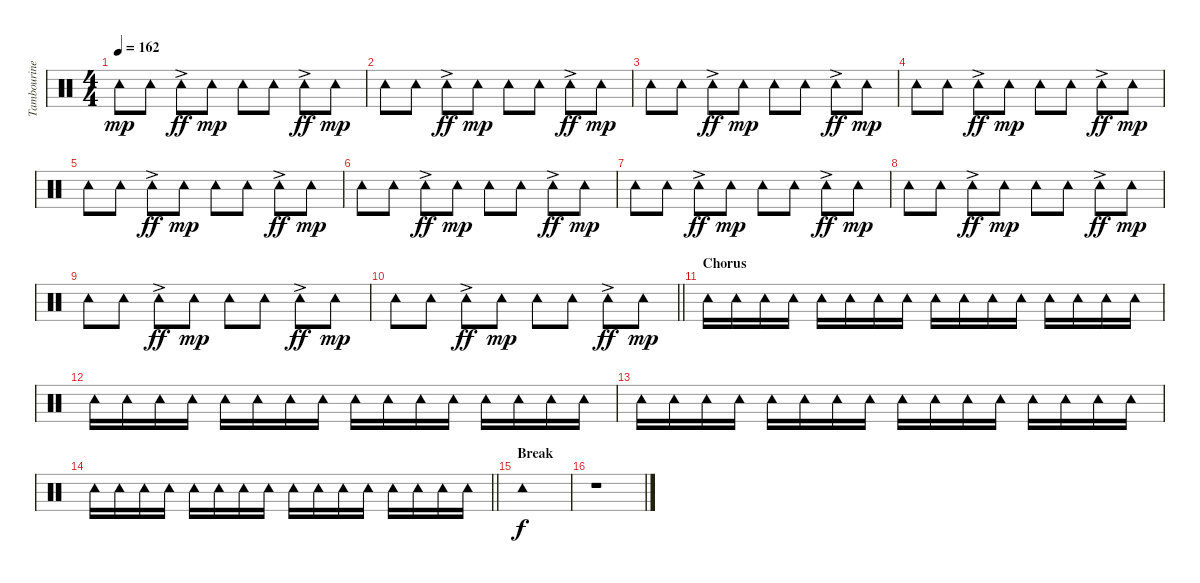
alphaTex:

\track ("Tambourine" "Tambourine") {instrument percussion}
\staff {score}
\articulation defaults
\ts (4 4)
\tempo 162
\clef neutral
\ks c "Tambourine (hit)".8{dy mp} "Tambourine (hit)".8 "Tambourine (hit)"{ac}.8{dy ff} "Tambourine (hit)".8{dy mp} "Tambourine (hit)".8 "Tambourine (hit)".8 "Tambourine (hit)"{ac}.8{dy ff} "Tambourine (hit)".8{dy mp}
|
"Tambourine (hit)".8 "Tambourine (hit)".8 "Tambourine (hit)"{ac}.8{dy ff} "Tambourine (hit)".8{dy mp} "Tambourine (hit)".8 "Tambourine (hit)".8 "Tambourine (hit)"{ac}.8{dy ff} "Tambourine (hit)".8{dy mp} |
"Tambourine (hit)".8 "Tambourine (hit)".8 "Tambourine (hit)"{ac}.8{dy ff} "Tambourine (hit)".8{dy mp} "Tambourine (hit)".8 "Tambourine (hit)".8 "Tambourine (hit)"{ac}.8{dy ff} "Tambourine (hit)".8{dy mp} |
"Tambourine (hit)".8 "Tambourine (hit)".8 "Tambourine (hit)"{ac}.8{dy ff} "Tambourine (hit)".8{dy mp} "Tambourine (hit)".8 "Tambourine (hit)".8 "Tambourine (hit)"{ac}.8{dy ff} "Tambourine (hit)".8{dy mp} |
"Tambourine (hit)".8 "Tambourine (hit)".8 "Tambourine (hit)"{ac}.8{dy ff} "Tambourine (hit)".8{dy mp} "Tambourine (hit)".8 "Tambourine (hit)".8 "Tambourine (hit)"{ac}.8{dy ff} "Tambourine (hit)".8{dy mp} |
"Tambourine (hit)".8 "Tambourine (hit)".8 "Tambourine (hit)"{ac}.8{dy ff} "Tambourine (hit)".8{dy mp} "Tambourine (hit)".8 "Tambourine (hit)".8 "Tambourine (hit)"{ac}.8{dy ff} "Tambourine (hit)".8{dy mp} |
"Tambourine (hit)".8 "Tambourine (hit)".8 "Tambourine (hit)"{ac}.8{dy ff} "Tambourine (hit)".8{dy mp} "Tambourine (hit)".8 "Tambourine (hit)".8 "Tambourine (hit)"{ac}.8{dy ff} "Tambourine (hit)".8{dy mp} |
"Tambourine (hit)".8 "Tambourine (hit)".8 "Tambourine (hit)"{ac}.8{dy ff} "Tambourine (hit)".8{dy mp} "Tambourine (hit)".8 "Tambourine (hit)".8 "Tambourine (hit)"{ac}.8{dy ff} "Tambourine (hit)".8{dy mp} |
"Tambourine (hit)".8 "Tambourine (hit)".8 "Tambourine (hit)"{ac}.8{dy ff} "Tambourine (hit)".8{dy mp} "Tambourine (hit)".8 "Tambourine (hit)".8 "Tambourine (hit)"{ac}.8{dy ff} "Tambourine (hit)".8{dy mp} |
\barLineRight lightlight "Tambourine (hit)".8 "Tambourine (hit)".8 "Tambourine (hit)"{ac}.8{dy ff} "Tambourine (hit)".8{dy mp} "Tambourine (hit)".8 "Tambourine (hit)".8 "Tambourine (hit)"{ac}.8{dy ff} "Tambourine (hit)".8{dy mp}
|
\section ("" "Chorus")
"Tambourine (hit)".16 "Tambourine (hit)".16 "Tambourine (hit)".16 "Tambourine (hit)".16 "Tambourine (hit)".16 "Tambourine (hit)".16 "Tambourine (hit)".16 "Tambourine (hit)".16 "Tambourine (hit)".16 "Tambourine (hit)".16 "Tambourine (hit)".16 "Tambourine (hit)".16 "Tambourine (hit)".16 "Tambourine (hit)".16 "Tambourine (hit)".16 "Tambourine (hit)".16 |
"Tambourine (hit)".16 "Tambourine (hit)".16 "Tambourine (hit)".16 "Tambourine (hit)".16 "Tambourine (hit)".16 "Tambourine (hit)".16 "Tambourine (hit)".16 "Tambourine (hit)".16 "Tambourine (hit)".16 "Tambourine (hit)".16 "Tambourine (hit)".16 "Tambourine (hit)".16 "Tambourine (hit)".16 "Tambourine (hit)".16 "Tambourine (hit)".16 "Tambourine (hit)".16 |
"Tambourine (hit)".16 "Tambourine (hit)".16 "Tambourine (hit)".16 "Tambourine (hit)".16 "Tambourine (hit)".16 "Tambourine (hit)".16 "Tambourine (hit)".16 "Tambourine (hit)".16 "Tambourine (hit)".16 "Tambourine (hit)".16 "Tambourine (hit)".16 "Tambourine (hit)".16 "Tambourine (hit)".16 "Tambourine (hit)".16 "Tambourine (hit)".16 "Tambourine (hit)".16 |
\barLineRight lightlight "Tambourine (hit)".16 "Tambourine (hit)".16 "Tambourine (hit)".16 "Tambourine (hit)".16 "Tambourine (hit)".16 "Tambourine (hit)".16 "Tambourine (hit)".16 "Tambourine (hit)".16 "Tambourine (hit)".16 "Tambourine (hit)".16 "Tambourine (hit)".16 "Tambourine (hit)".16 "Tambourine (hit)".16 "Tambourine (hit)".16 "Tambourine (hit)".16 "Tambourine (hit)".16
|
\section ("" "Break")
"Tambourine (hit)".1{dy f} |
r.1
